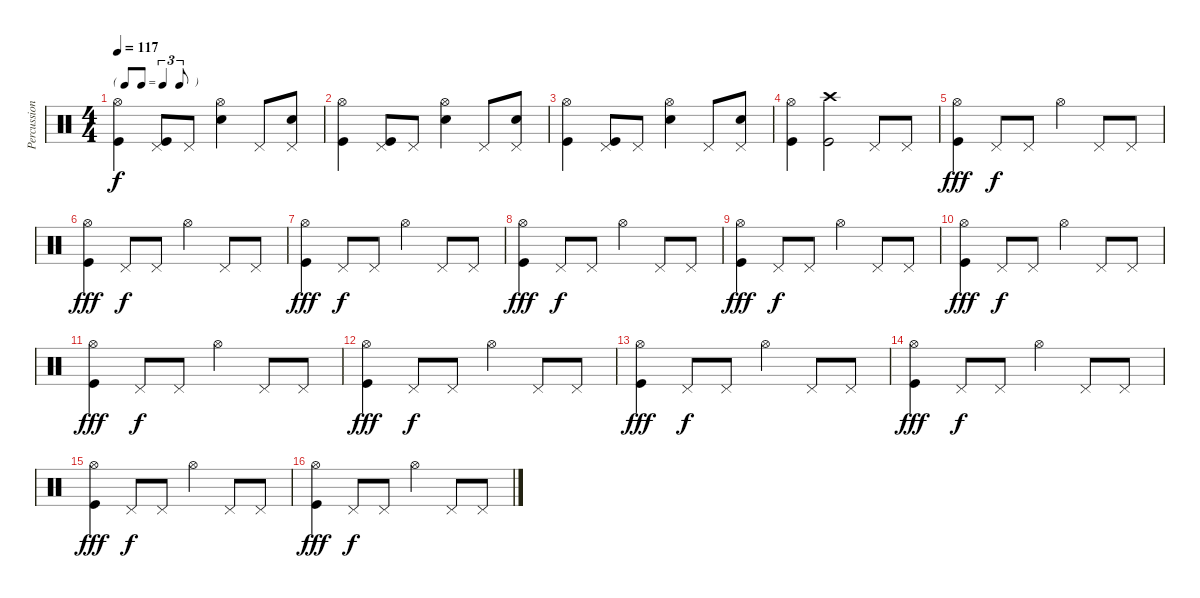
\track ("Percussions" "Percussion") {instrument percussion}
\staff {score}
\articulation defaults
\ts (4 4)
\tf triplet8th
\tempo 117
\clef neutral
\ks c
("Hi-Hat (open)" "Kick (hit)").4{dy f} ("Pedal Hi-Hat (hit)" "Kick (hit)").8 "Pedal Hi-Hat (hit)".8 ("Hi-Hat (open)" "Snare (hit) 2").4 "Pedal Hi-Hat (hit)".8 ("Pedal Hi-Hat (hit)" "Snare (hit) 2").8 |
("Hi-Hat (open)" "Kick (hit)").4 ("Pedal Hi-Hat (hit)" "Kick (hit)").8 "Pedal Hi-Hat (hit)".8 ("Hi-Hat (open)" "Snare (hit) 2").4 "Pedal Hi-Hat (hit)".8 ("Pedal Hi-Hat (hit)" "Snare (hit) 2").8 |
("Hi-Hat (open)" "Kick (hit)").4 ("Pedal Hi-Hat (hit)" "Kick (hit)").8 "Pedal Hi-Hat (hit)".8 ("Hi-Hat (open)" "Snare (hit) 2").4 "Pedal Hi-Hat (hit)".8 ("Pedal Hi-Hat (hit)" "Snare (hit) 2").8 |
("Hi-Hat (open)" "Kick (hit)").4 ("Crash high (hit)" "Kick (hit)").2 "Pedal Hi-Hat (hit)".8 "Pedal Hi-Hat (hit)".8 |
("Hi-Hat (open)" "Kick (hit)").4{dy fff} "Pedal Hi-Hat (hit)".8{dy f} "Pedal Hi-Hat (hit)".8 "Hi-Hat (open)".4 "Pedal Hi-Hat (hit)".8 "Pedal Hi-Hat (hit)".8 |
("Hi-Hat (open)" "Kick (hit)").4{dy fff} "Pedal Hi-Hat (hit)".8{dy f} "Pedal Hi-Hat (hit)".8 "Hi-Hat (open)".4 "Pedal Hi-Hat (hit)".8 "Pedal Hi-Hat (hit)".8 |
("Hi-Hat (open)" "Kick (hit)").4{dy fff} "Pedal Hi-Hat (hit)".8{dy f} "Pedal Hi-Hat (hit)".8 "Hi-Hat (open)".4 "Pedal Hi-Hat (hit)".8 "Pedal Hi-Hat (hit)".8 |
("Hi-Hat (open)" "Kick (hit)").4{dy fff} "Pedal Hi-Hat (hit)".8{dy f} "Pedal Hi-Hat (hit)".8 "Hi-Hat (open)".4 "Pedal Hi-Hat (hit)".8 "Pedal Hi-Hat (hit)".8 |
("Hi-Hat (open)" "Kick (hit)").4{dy fff} "Pedal Hi-Hat (hit)".8{dy f} "Pedal Hi-Hat (hit)".8 "Hi-Hat (open)".4 "Pedal Hi-Hat (hit)".8 "Pedal Hi-Hat (hit)".8 |
("Hi-Hat (open)" "Kick (hit)").4{dy fff} "Pedal Hi-Hat (hit)".8{dy f} "Pedal Hi-Hat (hit)".8 "Hi-Hat (open)".4 "Pedal Hi-Hat (hit)".8 "Pedal Hi-Hat (hit)".8 |
("Hi-Hat (open)" "Kick (hit)").4{dy fff} "Pedal Hi-Hat (hit)".8{dy f} "Pedal Hi-Hat (hit)".8 "Hi-Hat (open)".4 "Pedal Hi-Hat (hit)".8 "Pedal Hi-Hat (hit)".8 |
("Hi-Hat (open)" "Kick (hit)").4{dy fff} "Pedal Hi-Hat (hit)".8{dy f} "Pedal Hi-Hat (hit)".8 "Hi-Hat (open)".4 "Pedal Hi-Hat (hit)".8 "Pedal Hi-Hat (hit)".8 |
("Hi-Hat (open)" "Kick (hit)").4{dy fff} "Pedal Hi-Hat (hit)".8{dy f} "Pedal Hi-Hat (hit)".8 "Hi-Hat (open)".4 "Pedal Hi-Hat (hit)".8 "Pedal Hi-Hat (hit)".8 |
("Hi-Hat (open)" "Kick (hit)").4{dy fff} "Pedal Hi-Hat (hit)".8{dy f} "Pedal Hi-Hat (hit)".8 "Hi-Hat (open)".4 "Pedal Hi-Hat (hit)".8 "Pedal Hi-Hat (hit)".8 |
("Hi-Hat (open)" "Kick (hit)").4{dy fff} "Pedal Hi-Hat (hit)".8{dy f} "Pedal Hi-Hat (hit)".8 "Hi-Hat (open)".4 "Pedal Hi-Hat (hit)".8 "Pedal Hi-Hat (hit)".8 |
("Hi-Hat (open)" "Kick (hit)").4{dy fff} "Pedal Hi-Hat (hit)".8{dy f} "Pedal Hi-Hat (hit)".8 "Hi-Hat (open)".4 "Pedal Hi-Hat (hit)".8 "Pedal Hi-Hat (hit)".8
